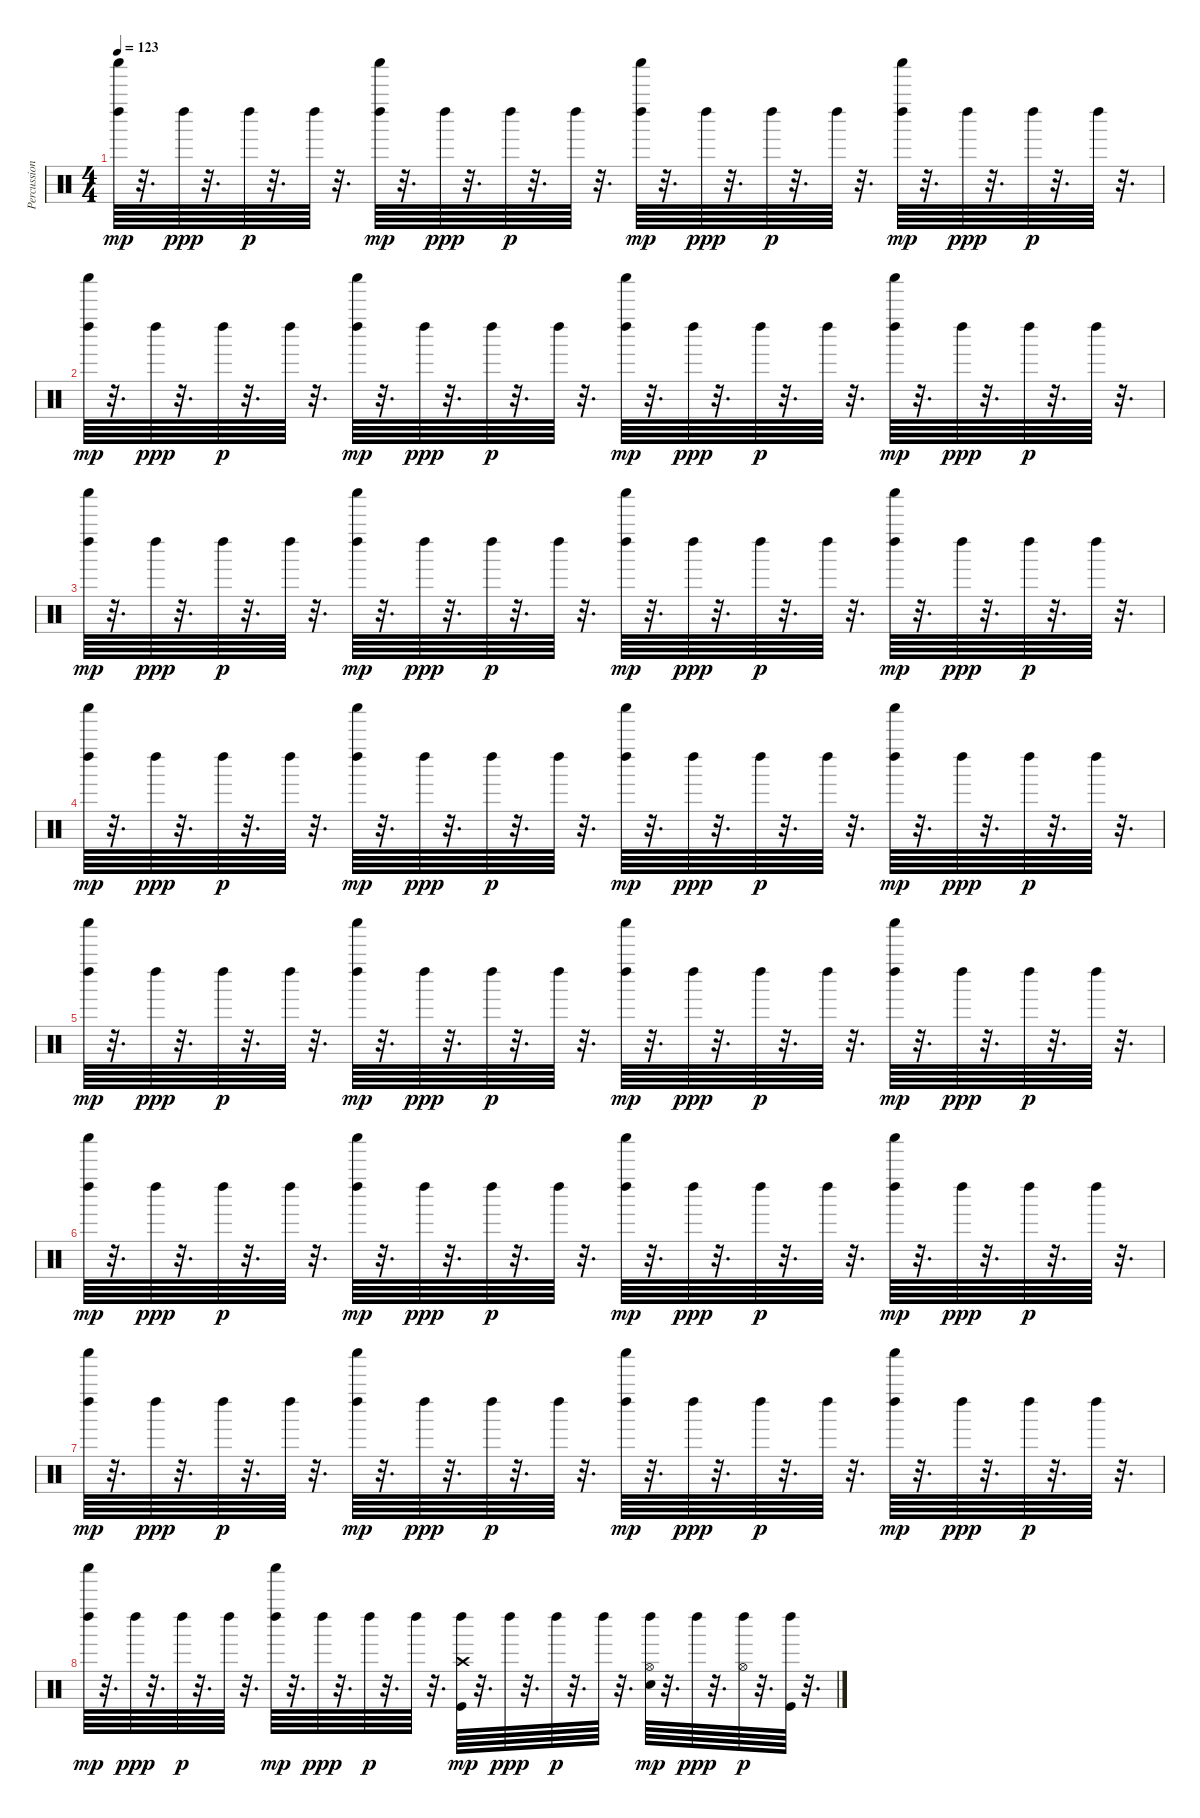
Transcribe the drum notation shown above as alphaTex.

\track ("Percussion" "Percussion") {instrument percussion}
\staff {score}
\articulation defaults
\ts (4 4)
\tempo 123
\clef neutral
\ks c
("Left Maraca (hit)" "Shaker (hit)").64{dy mp} r.32{d} "Left Maraca (hit)".64{dy ppp} r.32{d} "Left Maraca (hit)".64{dy p} r.32{d} "Left Maraca (hit)".64 r.32{d} ("Left Maraca (hit)" "Shaker (hit)").64{dy mp} r.32{d} "Left Maraca (hit)".64{dy ppp} r.32{d} "Left Maraca (hit)".64{dy p} r.32{d} "Left Maraca (hit)".64 r.32{d} ("Left Maraca (hit)" "Shaker (hit)").64{dy mp} r.32{d} "Left Maraca (hit)".64{dy ppp} r.32{d} "Left Maraca (hit)".64{dy p} r.32{d} "Left Maraca (hit)".64 r.32{d} ("Left Maraca (hit)" "Shaker (hit)").64{dy mp} r.32{d} "Left Maraca (hit)".64{dy ppp} r.32{d} "Left Maraca (hit)".64{dy p} r.32{d} "Left Maraca (hit)".64 r.32{d} |
("Left Maraca (hit)" "Shaker (hit)").64{dy mp} r.32{d} "Left Maraca (hit)".64{dy ppp} r.32{d} "Left Maraca (hit)".64{dy p} r.32{d} "Left Maraca (hit)".64 r.32{d} ("Left Maraca (hit)" "Shaker (hit)").64{dy mp} r.32{d} "Left Maraca (hit)".64{dy ppp} r.32{d} "Left Maraca (hit)".64{dy p} r.32{d} "Left Maraca (hit)".64 r.32{d} ("Left Maraca (hit)" "Shaker (hit)").64{dy mp} r.32{d} "Left Maraca (hit)".64{dy ppp} r.32{d} "Left Maraca (hit)".64{dy p} r.32{d} "Left Maraca (hit)".64 r.32{d} ("Left Maraca (hit)" "Shaker (hit)").64{dy mp} r.32{d} "Left Maraca (hit)".64{dy ppp} r.32{d} "Left Maraca (hit)".64{dy p} r.32{d} "Left Maraca (hit)".64 r.32{d} |
("Left Maraca (hit)" "Shaker (hit)").64{dy mp} r.32{d} "Left Maraca (hit)".64{dy ppp} r.32{d} "Left Maraca (hit)".64{dy p} r.32{d} "Left Maraca (hit)".64 r.32{d} ("Left Maraca (hit)" "Shaker (hit)").64{dy mp} r.32{d} "Left Maraca (hit)".64{dy ppp} r.32{d} "Left Maraca (hit)".64{dy p} r.32{d} "Left Maraca (hit)".64 r.32{d} ("Left Maraca (hit)" "Shaker (hit)").64{dy mp} r.32{d} "Left Maraca (hit)".64{dy ppp} r.32{d} "Left Maraca (hit)".64{dy p} r.32{d} "Left Maraca (hit)".64 r.32{d} ("Left Maraca (hit)" "Shaker (hit)").64{dy mp} r.32{d} "Left Maraca (hit)".64{dy ppp} r.32{d} "Left Maraca (hit)".64{dy p} r.32{d} "Left Maraca (hit)".64 r.32{d} |
("Left Maraca (hit)" "Shaker (hit)").64{dy mp} r.32{d} "Left Maraca (hit)".64{dy ppp} r.32{d} "Left Maraca (hit)".64{dy p} r.32{d} "Left Maraca (hit)".64 r.32{d} ("Left Maraca (hit)" "Shaker (hit)").64{dy mp} r.32{d} "Left Maraca (hit)".64{dy ppp} r.32{d} "Left Maraca (hit)".64{dy p} r.32{d} "Left Maraca (hit)".64 r.32{d} ("Left Maraca (hit)" "Shaker (hit)").64{dy mp} r.32{d} "Left Maraca (hit)".64{dy ppp} r.32{d} "Left Maraca (hit)".64{dy p} r.32{d} "Left Maraca (hit)".64 r.32{d} ("Left Maraca (hit)" "Shaker (hit)").64{dy mp} r.32{d} "Left Maraca (hit)".64{dy ppp} r.32{d} "Left Maraca (hit)".64{dy p} r.32{d} "Left Maraca (hit)".64 r.32{d} |
("Left Maraca (hit)" "Shaker (hit)").64{dy mp} r.32{d} "Left Maraca (hit)".64{dy ppp} r.32{d} "Left Maraca (hit)".64{dy p} r.32{d} "Left Maraca (hit)".64 r.32{d} ("Left Maraca (hit)" "Shaker (hit)").64{dy mp} r.32{d} "Left Maraca (hit)".64{dy ppp} r.32{d} "Left Maraca (hit)".64{dy p} r.32{d} "Left Maraca (hit)".64 r.32{d} ("Left Maraca (hit)" "Shaker (hit)").64{dy mp} r.32{d} "Left Maraca (hit)".64{dy ppp} r.32{d} "Left Maraca (hit)".64{dy p} r.32{d} "Left Maraca (hit)".64 r.32{d} ("Left Maraca (hit)" "Shaker (hit)").64{dy mp} r.32{d} "Left Maraca (hit)".64{dy ppp} r.32{d} "Left Maraca (hit)".64{dy p} r.32{d} "Left Maraca (hit)".64 r.32{d} |
("Left Maraca (hit)" "Shaker (hit)").64{dy mp} r.32{d} "Left Maraca (hit)".64{dy ppp} r.32{d} "Left Maraca (hit)".64{dy p} r.32{d} "Left Maraca (hit)".64 r.32{d} ("Left Maraca (hit)" "Shaker (hit)").64{dy mp} r.32{d} "Left Maraca (hit)".64{dy ppp} r.32{d} "Left Maraca (hit)".64{dy p} r.32{d} "Left Maraca (hit)".64 r.32{d} ("Left Maraca (hit)" "Shaker (hit)").64{dy mp} r.32{d} "Left Maraca (hit)".64{dy ppp} r.32{d} "Left Maraca (hit)".64{dy p} r.32{d} "Left Maraca (hit)".64 r.32{d} ("Left Maraca (hit)" "Shaker (hit)").64{dy mp} r.32{d} "Left Maraca (hit)".64{dy ppp} r.32{d} "Left Maraca (hit)".64{dy p} r.32{d} "Left Maraca (hit)".64 r.32{d} |
("Left Maraca (hit)" "Shaker (hit)").64{dy mp} r.32{d} "Left Maraca (hit)".64{dy ppp} r.32{d} "Left Maraca (hit)".64{dy p} r.32{d} "Left Maraca (hit)".64 r.32{d} ("Left Maraca (hit)" "Shaker (hit)").64{dy mp} r.32{d} "Left Maraca (hit)".64{dy ppp} r.32{d} "Left Maraca (hit)".64{dy p} r.32{d} "Left Maraca (hit)".64 r.32{d} ("Left Maraca (hit)" "Shaker (hit)").64{dy mp} r.32{d} "Left Maraca (hit)".64{dy ppp} r.32{d} "Left Maraca (hit)".64{dy p} r.32{d} "Left Maraca (hit)".64 r.32{d} ("Left Maraca (hit)" "Shaker (hit)").64{dy mp} r.32{d} "Left Maraca (hit)".64{dy ppp} r.32{d} "Left Maraca (hit)".64{dy p} r.32{d} "Left Maraca (hit)".64 r.32{d} |
("Left Maraca (hit)" "Shaker (hit)").64{dy mp} r.32{d} "Left Maraca (hit)".64{dy ppp} r.32{d} "Left Maraca (hit)".64{dy p} r.32{d} "Left Maraca (hit)".64 r.32{d} ("Left Maraca (hit)" "Shaker (hit)").64{dy mp} r.32{d} "Left Maraca (hit)".64{dy ppp} r.32{d} "Left Maraca (hit)".64{dy p} r.32{d} "Left Maraca (hit)".64 r.32{d} ("Kick (hit)" "Crash high (hit)" "Left Maraca (hit)").64{dy mp} r.32{d} "Left Maraca (hit)".64{dy ppp} r.32{d} "Left Maraca (hit)".64{dy p} r.32{d} "Left Maraca (hit)".64 r.32{d} ("Electric Snare (hit)" "Hi-Hat (open)" "Left Maraca (hit)").64{dy mp} r.32{d} "Left Maraca (hit)".64{dy ppp} r.32{d} ("Hi-Hat (open)" "Left Maraca (hit)").64{dy p} r.32{d} ("Kick (hit)" "Left Maraca (hit)").64 r.32{d}
